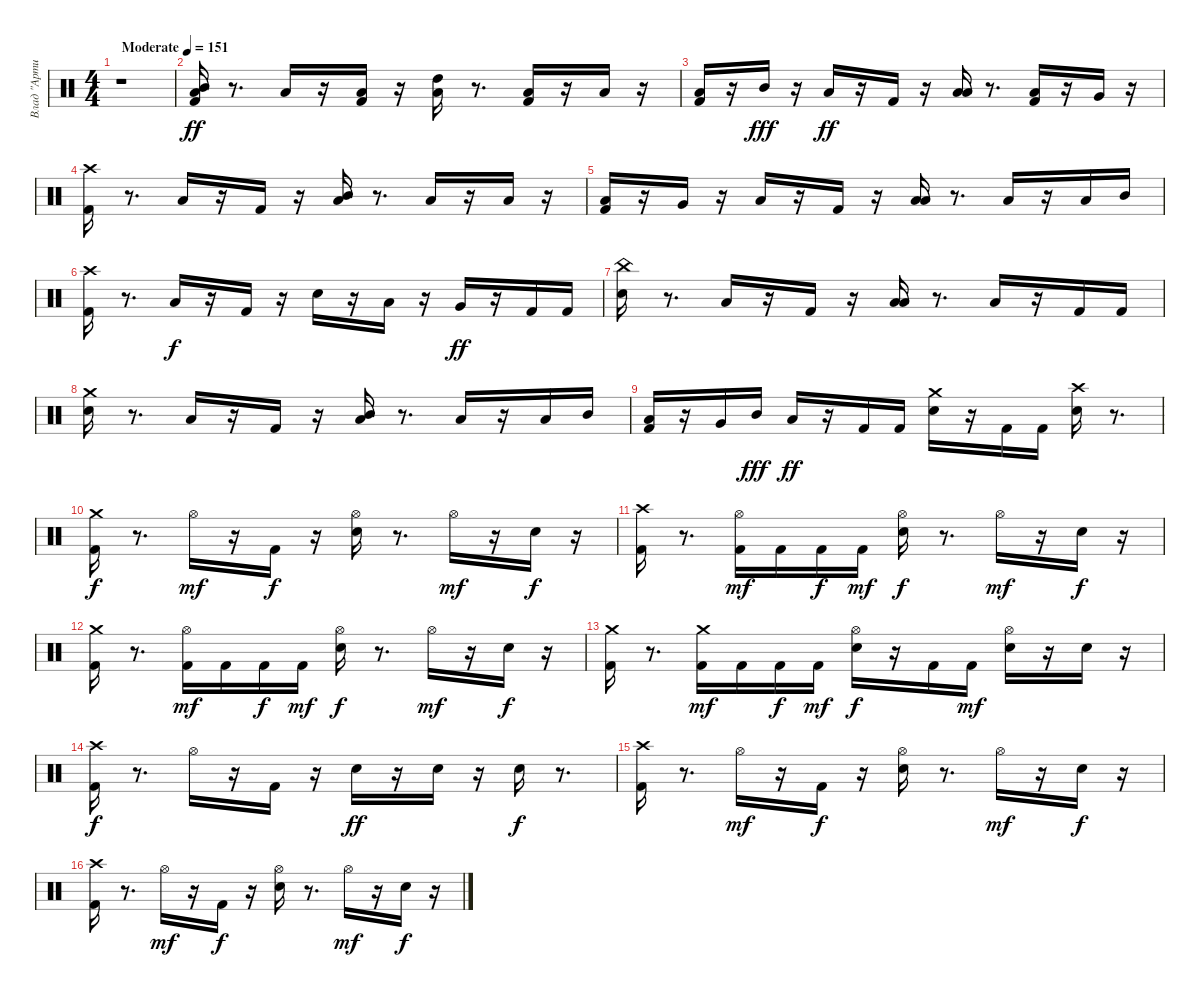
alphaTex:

\track ("Влад \"Артист\"" "Влад \"Арти") {instrument percussion}
\staff {score}
\articulation defaults
\ts (4 4)
\tempo (151 "Moderate")
\clef neutral
\ks c
r.1{dy ff} |
("Kick (hit) 2" "Low Floor Tom (hit)" "Mid Tom (hit)").16 r.8{d} "Low Floor Tom (hit)".16 r.16 ("Low Tom (hit)" "Kick (hit) 2").16 r.16 ("High Tom (hit)" "Low Floor Tom (hit)").16 r.8{d} ("Low Floor Tom (hit)" "Kick (hit) 2").16 r.16 "Low Tom (hit)".16 r.16 |
("Kick (hit) 2" "Low Floor Tom (hit)").16 r.16 "Mid Tom (hit)".16{dy fff} r.16 "Low Floor Tom (hit)".16{dy ff} r.16 "Kick (hit) 2".16 r.16 ("Low Tom (hit)" "Low Floor Tom (hit)").16 r.8{d} ("Kick (hit) 2" "Low Floor Tom (hit)").16 r.16 "Very Low Tom (hit)".16 r.16 |
("Crash high (hit)" "Kick (hit) 2").16 r.8{d} "Low Floor Tom (hit)".16 r.16 "Kick (hit) 2".16 r.16 ("Mid Tom (hit)" "Low Floor Tom (hit)").16 r.8{d} "Low Floor Tom (hit)".16 r.16 "Low Tom (hit)".16 r.16 |
("Kick (hit) 2" "Low Floor Tom (hit)").16 r.16 "Very Low Tom (hit)".16 r.16 "Low Floor Tom (hit)".16 r.16 "Kick (hit) 2".16 r.16 ("Low Tom (hit)" "Low Floor Tom (hit)").16 r.8{d} "Low Floor Tom (hit)".16 r.16 "Low Tom (hit)".16 "Mid Tom (hit)".16 |
("Kick (hit) 2" "Crash high (hit)").16 r.8{d} "Low Floor Tom (hit)".16{dy f} r.16 "Kick (hit) 2".16 r.16 "Snare (hit) 2".16 r.16 "Low Tom (hit)".16 r.16 "Very Low Tom (hit)".16{dy ff} r.16 "Kick (hit) 2".16 "Kick (hit) 2".16 |
("Snare (hit) 2" "China (hit)").16 r.8{d} "Low Floor Tom (hit)".16 r.16 "Kick (hit) 2".16 r.16 ("Low Tom (hit)" "Low Floor Tom (hit)").16 r.8{d} "Low Floor Tom (hit)".16 r.16 "Kick (hit) 2".16 "Kick (hit) 2".16 |
("Snare (hit) 2" "Crash medium (hit)").16 r.8{d} "Low Floor Tom (hit)".16 r.16 "Kick (hit) 2".16 r.16 ("Mid Tom (hit)" "Low Floor Tom (hit)").16 r.8{d} "Low Floor Tom (hit)".16 r.16 "Low Tom (hit)".16 "Mid Tom (hit)".16 |
("Kick (hit) 2" "Low Floor Tom (hit)").16 r.16 "Very Low Tom (hit)".16 "Mid Tom (hit)".16{dy fff} "Low Floor Tom (hit)".16{dy ff} r.16 "Kick (hit) 2".16 "Kick (hit) 2".16 ("Crash medium (hit)" "Snare (hit) 2").16 r.16 "Kick (hit) 2".16 "Kick (hit) 2".16 ("Crash high (hit)" "Snare (hit) 2").16 r.8{d} |
("Crash medium (hit)" "Kick (hit) 2").16{dy f} r.8{d} "Hi-Hat (open)".16{dy mf} r.16 "Kick (hit) 2".16{dy f} r.16 ("Snare (hit) 2" "Hi-Hat (open)").16 r.8{d} "Hi-Hat (open)".16{dy mf} r.16 "Snare (hit) 2".16{dy f} r.16 |
("Kick (hit) 2" "Crash high (hit)").16 r.8{d} ("Hi-Hat (open)" "Kick (hit) 2").16{dy mf} "Kick (hit) 2".16 "Kick (hit) 2".16{dy f} "Kick (hit) 2".16{dy mf} ("Hi-Hat (open)" "Snare (hit) 2").16{dy f} r.8{d} "Hi-Hat (open)".16{dy mf} r.16 "Snare (hit) 2".16{dy f} r.16 |
("Crash medium (hit)" "Kick (hit) 2").16 r.8{d} ("Hi-Hat (open)" "Kick (hit) 2").16{dy mf} "Kick (hit) 2".16 "Kick (hit) 2".16{dy f} "Kick (hit) 2".16{dy mf} ("Hi-Hat (open)" "Snare (hit) 2").16{dy f} r.8{d} "Hi-Hat (open)".16{dy mf} r.16 "Snare (hit) 2".16{dy f} r.16 |
("Kick (hit) 2" "Crash medium (hit)").16 r.8{d} ("Crash medium (hit)" "Kick (hit) 2").16{dy mf} "Kick (hit) 2".16 "Kick (hit) 2".16{dy f} "Kick (hit) 2".16{dy mf} ("Hi-Hat (open)" "Snare (hit) 2").16{dy f} r.16 "Kick (hit) 2".16 "Kick (hit) 2".16{dy mf} ("Hi-Hat (open)" "Snare (hit) 2").16 r.16 "Snare (hit) 2".16 r.16 |
("Kick (hit) 2" "Crash high (hit)").16{dy f} r.8{d} "Hi-Hat (open)".16 r.16 "Kick (hit) 2".16 r.16 "Snare (hit) 2".16{dy ff} r.16 "Snare (hit) 2".16 r.16 "Snare (hit) 2".16{dy f} r.8{d} |
("Crash high (hit)" "Kick (hit) 2").16 r.8{d} "Hi-Hat (open)".16{dy mf} r.16 "Kick (hit) 2".16{dy f} r.16 ("Snare (hit) 2" "Hi-Hat (open)").16 r.8{d} "Hi-Hat (open)".16{dy mf} r.16 "Snare (hit) 2".16{dy f} r.16 |
("Crash high (hit)" "Kick (hit) 2").16 r.8{d} "Hi-Hat (open)".16{dy mf} r.16 "Kick (hit) 2".16{dy f} r.16 ("Hi-Hat (open)" "Snare (hit) 2").16 r.8{d} "Hi-Hat (open)".16{dy mf} r.16 "Snare (hit) 2".16{dy f} r.16
